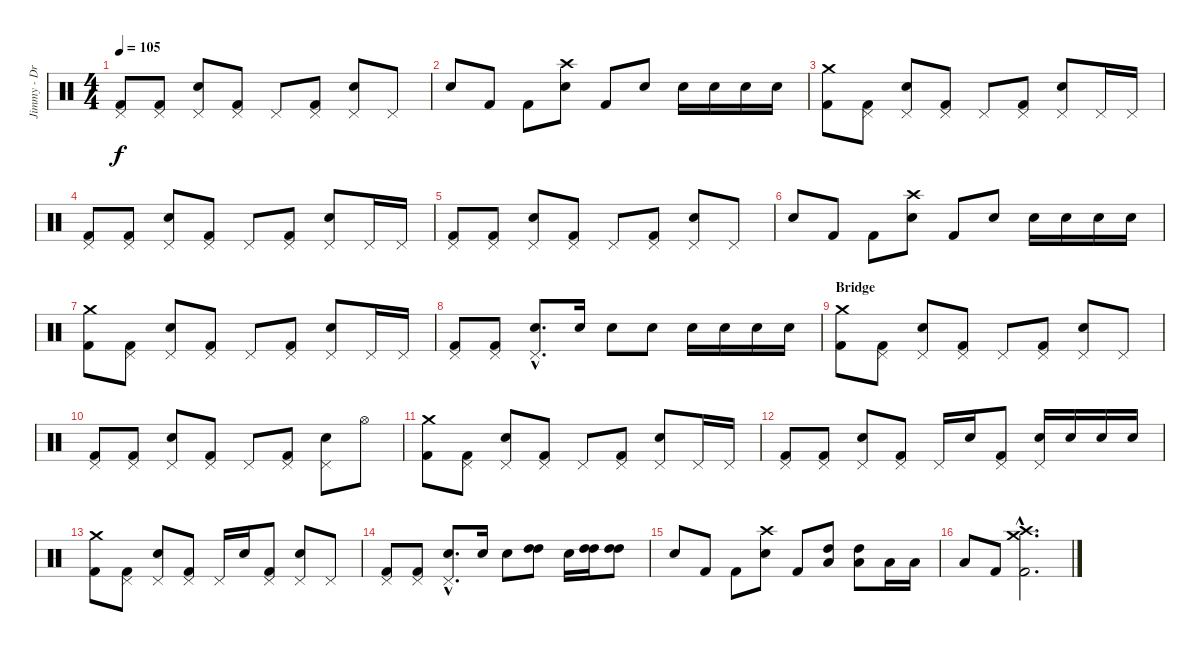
\track ("Jimmy - Drums" "Jimmy - Dr") {instrument percussion}
\staff {score}
\articulation defaults
\ts (4 4)
\tempo 105
\clef neutral
\ks c
("Pedal Hi-Hat (hit)" "Kick (hit) 2").8{dy f} ("Pedal Hi-Hat (hit)" "Kick (hit) 2").8 ("Pedal Hi-Hat (hit)" "Electric Snare (hit)").8 ("Pedal Hi-Hat (hit)" "Kick (hit) 2").8 "Pedal Hi-Hat (hit)".8 ("Pedal Hi-Hat (hit)" "Kick (hit) 2").8 ("Pedal Hi-Hat (hit)" "Electric Snare (hit)").8 "Pedal Hi-Hat (hit)".8 |
"Electric Snare (hit)".8 "Kick (hit) 2".8 "Kick (hit) 2".8 ("Crash high (hit)" "Electric Snare (hit)").8 "Kick (hit) 2".8 "Electric Snare (hit)".8 "Electric Snare (hit)".16 "Electric Snare (hit)".16 "Electric Snare (hit)".16 "Electric Snare (hit)".16 |
("Crash medium (hit)" "Kick (hit) 2").8 ("Pedal Hi-Hat (hit)" "Kick (hit) 2").8 ("Pedal Hi-Hat (hit)" "Electric Snare (hit)").8 ("Pedal Hi-Hat (hit)" "Kick (hit) 2").8 "Pedal Hi-Hat (hit)".8 ("Pedal Hi-Hat (hit)" "Kick (hit) 2").8 ("Pedal Hi-Hat (hit)" "Electric Snare (hit)").8 "Pedal Hi-Hat (hit)".16 "Pedal Hi-Hat (hit)".16 |
("Pedal Hi-Hat (hit)" "Kick (hit) 2").8 ("Pedal Hi-Hat (hit)" "Kick (hit) 2").8 ("Pedal Hi-Hat (hit)" "Electric Snare (hit)").8 ("Pedal Hi-Hat (hit)" "Kick (hit) 2").8 "Pedal Hi-Hat (hit)".8 ("Pedal Hi-Hat (hit)" "Kick (hit) 2").8 ("Pedal Hi-Hat (hit)" "Electric Snare (hit)").8 "Pedal Hi-Hat (hit)".16 "Pedal Hi-Hat (hit)".16 |
("Pedal Hi-Hat (hit)" "Kick (hit) 2").8 ("Pedal Hi-Hat (hit)" "Kick (hit) 2").8 ("Pedal Hi-Hat (hit)" "Electric Snare (hit)").8 ("Pedal Hi-Hat (hit)" "Kick (hit) 2").8 "Pedal Hi-Hat (hit)".8 ("Pedal Hi-Hat (hit)" "Kick (hit) 2").8 ("Pedal Hi-Hat (hit)" "Electric Snare (hit)").8 "Pedal Hi-Hat (hit)".8 |
"Electric Snare (hit)".8 "Kick (hit) 2".8 "Kick (hit) 2".8 ("Crash high (hit)" "Electric Snare (hit)").8 "Kick (hit) 2".8 "Electric Snare (hit)".8 "Electric Snare (hit)".16 "Electric Snare (hit)".16 "Electric Snare (hit)".16 "Electric Snare (hit)".16 |
("Crash medium (hit)" "Kick (hit) 2").8 ("Pedal Hi-Hat (hit)" "Kick (hit) 2").8 ("Pedal Hi-Hat (hit)" "Electric Snare (hit)").8 ("Pedal Hi-Hat (hit)" "Kick (hit) 2").8 "Pedal Hi-Hat (hit)".8 ("Pedal Hi-Hat (hit)" "Kick (hit) 2").8 ("Pedal Hi-Hat (hit)" "Electric Snare (hit)").8 "Pedal Hi-Hat (hit)".16 "Pedal Hi-Hat (hit)".16 |
("Pedal Hi-Hat (hit)" "Kick (hit) 2").8 ("Pedal Hi-Hat (hit)" "Kick (hit) 2").8 ("Pedal Hi-Hat (hit)"{hac} "Electric Snare (hit)"{hac}).8{d} "Electric Snare (hit)".16 "Electric Snare (hit)".8 "Electric Snare (hit)".8 "Electric Snare (hit)".16 "Electric Snare (hit)".16 "Electric Snare (hit)".16 "Electric Snare (hit)".16 |
\section ("" "Bridge")
("Crash medium (hit)" "Kick (hit) 2").8 ("Pedal Hi-Hat (hit)" "Kick (hit) 2").8 ("Pedal Hi-Hat (hit)" "Electric Snare (hit)").8 ("Pedal Hi-Hat (hit)" "Kick (hit) 2").8 "Pedal Hi-Hat (hit)".8 ("Pedal Hi-Hat (hit)" "Kick (hit) 2").8 ("Pedal Hi-Hat (hit)" "Electric Snare (hit)").8 "Pedal Hi-Hat (hit)".8 |
("Pedal Hi-Hat (hit)" "Kick (hit) 2").8 ("Pedal Hi-Hat (hit)" "Kick (hit) 2").8 ("Pedal Hi-Hat (hit)" "Electric Snare (hit)").8 ("Pedal Hi-Hat (hit)" "Kick (hit) 2").8 "Pedal Hi-Hat (hit)".8 ("Pedal Hi-Hat (hit)" "Kick (hit) 2").8 ("Pedal Hi-Hat (hit)" "Electric Snare (hit)").8 "Hi-Hat (open)".8 |
("Crash medium (hit)" "Kick (hit) 2").8 ("Pedal Hi-Hat (hit)" "Kick (hit) 2").8 ("Pedal Hi-Hat (hit)" "Electric Snare (hit)").8 ("Pedal Hi-Hat (hit)" "Kick (hit) 2").8 "Pedal Hi-Hat (hit)".8 ("Pedal Hi-Hat (hit)" "Kick (hit) 2").8 ("Pedal Hi-Hat (hit)" "Electric Snare (hit)").8 "Pedal Hi-Hat (hit)".16 "Pedal Hi-Hat (hit)".16 |
("Pedal Hi-Hat (hit)" "Kick (hit) 2").8 ("Pedal Hi-Hat (hit)" "Kick (hit) 2").8 ("Pedal Hi-Hat (hit)" "Electric Snare (hit)").8 ("Pedal Hi-Hat (hit)" "Kick (hit) 2").8 "Pedal Hi-Hat (hit)".16 "Electric Snare (hit)".16 ("Pedal Hi-Hat (hit)" "Kick (hit) 2").8 ("Pedal Hi-Hat (hit)" "Electric Snare (hit)").16 "Electric Snare (hit)".16 "Electric Snare (hit)".16 "Electric Snare (hit)".16 |
("Crash medium (hit)" "Kick (hit) 2").8 ("Pedal Hi-Hat (hit)" "Kick (hit) 2").8 ("Pedal Hi-Hat (hit)" "Electric Snare (hit)").8 ("Pedal Hi-Hat (hit)" "Kick (hit) 2").8 "Pedal Hi-Hat (hit)".16 "Electric Snare (hit)".16 ("Pedal Hi-Hat (hit)" "Kick (hit) 2").8 ("Pedal Hi-Hat (hit)" "Electric Snare (hit)").8 "Pedal Hi-Hat (hit)".8 |
("Pedal Hi-Hat (hit)" "Kick (hit) 2").8 ("Pedal Hi-Hat (hit)" "Kick (hit) 2").8 ("Pedal Hi-Hat (hit)"{hac} "Electric Snare (hit)"{hac}).8{d} "Electric Snare (hit)".16 "Electric Snare (hit)".8 ("High Tom (hit)" "High Tom (hit)").8 "Electric Snare (hit)".16 ("High Tom (hit)" "High Tom (hit)").16 ("High Tom (hit)" "High Tom (hit)").8 |
"Electric Snare (hit)".8 "Kick (hit) 2".8 "Kick (hit) 2".8 ("Crash high (hit)" "Electric Snare (hit)").8 "Kick (hit) 2".8 ("High Tom (hit)" "Low Tom (hit)").8 ("High Tom (hit)" "Low Tom (hit)").8 "Low Tom (hit)".16 "Low Tom (hit)".16 |
"Low Tom (hit)".8 "Kick (hit) 2".8 ("Crash medium (hit)"{hac} "Crash high (hit)"{hac} "Kick (hit) 2"{hac}).2{d}
